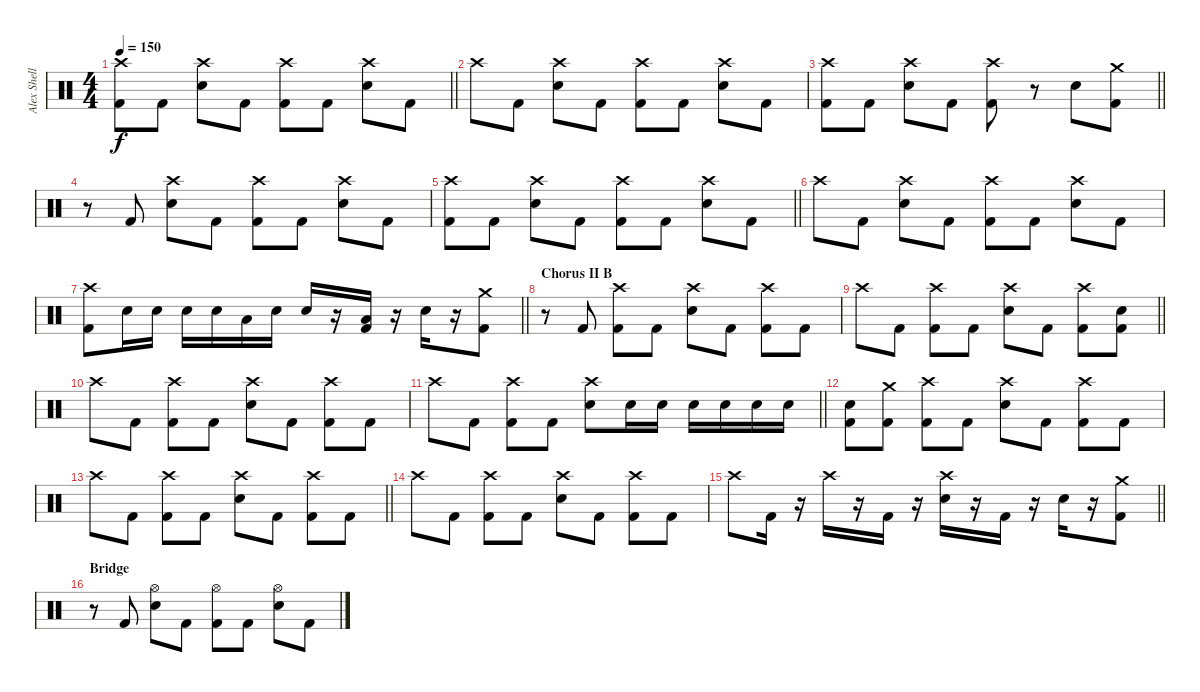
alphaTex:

\track ("Alex Shellnutt" "Alex Shell") {instrument percussion}
\staff {score}
\articulation defaults
\ts (4 4)
\tempo 150
\clef neutral
\barLineRight lightlight
\ks c
("Crash high (hit)" "Kick (hit) 2").8{dy f} "Kick (hit) 2".8 ("Crash high (hit)" "Snare (hit) 2").8 "Kick (hit) 2".8 ("Crash high (hit)" "Kick (hit) 2").8 "Kick (hit) 2".8 ("Crash high (hit)" "Snare (hit) 2").8 "Kick (hit) 2".8 |
"Crash high (hit)".8 "Kick (hit) 2".8 ("Crash high (hit)" "Snare (hit) 2").8 "Kick (hit) 2".8 ("Crash high (hit)" "Kick (hit) 2").8 "Kick (hit) 2".8 ("Crash high (hit)" "Snare (hit) 2").8 "Kick (hit) 2".8 |
\barLineRight lightlight
("Crash high (hit)" "Kick (hit) 2").8 "Kick (hit) 2".8 ("Crash high (hit)" "Snare (hit) 2").8 "Kick (hit) 2".8 ("Crash high (hit)" "Kick (hit) 2").8 r.8 "Snare (hit) 2".8 ("Crash medium (hit)" "Kick (hit) 2").8 |
r.8 "Kick (hit) 2".8 ("Crash high (hit)" "Snare (hit) 2").8 "Kick (hit) 2".8 ("Crash high (hit)" "Kick (hit) 2").8 "Kick (hit) 2".8 ("Crash high (hit)" "Snare (hit) 2").8 "Kick (hit) 2".8 |
\barLineRight lightlight
("Crash high (hit)" "Kick (hit) 2").8 "Kick (hit) 2".8 ("Crash high (hit)" "Snare (hit) 2").8 "Kick (hit) 2".8 ("Crash high (hit)" "Kick (hit) 2").8 "Kick (hit) 2".8 ("Crash high (hit)" "Snare (hit) 2").8 "Kick (hit) 2".8 |
"Crash high (hit)".8 "Kick (hit) 2".8 ("Crash high (hit)" "Snare (hit) 2").8 "Kick (hit) 2".8 ("Crash high (hit)" "Kick (hit) 2").8 "Kick (hit) 2".8 ("Crash high (hit)" "Snare (hit) 2").8 "Kick (hit) 2".8 |
\barLineRight lightlight
("Crash high (hit)" "Kick (hit) 2").8 "Snare (hit) 2".16 "Snare (hit) 2".16 "Snare (hit) 2".16 "Snare (hit) 2".16 "Low Floor Tom (hit)".16 "Snare (hit) 2".16 "Snare (hit) 2".16 r.16 ("Low Floor Tom (hit)" "Kick (hit) 2").16 r.16 "Snare (hit) 2".16 r.16 ("Crash medium (hit)" "Kick (hit) 2").8 |
\section ("" "Chorus II B")
r.8 "Kick (hit) 2".8 ("Crash high (hit)" "Kick (hit) 2").8 "Kick (hit) 2".8 ("Crash high (hit)" "Snare (hit) 2").8 "Kick (hit) 2".8 ("Crash high (hit)" "Kick (hit) 2").8 "Kick (hit) 2".8 |
\barLineRight lightlight "Crash high (hit)".8 "Kick (hit) 2".8
("Crash high (hit)" "Kick (hit) 2").8 "Kick (hit) 2".8 ("Crash high (hit)" "Snare (hit) 2").8 "Kick (hit) 2".8 ("Crash high (hit)" "Kick (hit) 2").8 ("Snare (hit) 2" "Kick (hit) 2").8 |
"Crash high (hit)".8 "Kick (hit) 2".8 ("Crash high (hit)" "Kick (hit) 2").8 "Kick (hit) 2".8 ("Crash high (hit)" "Snare (hit) 2").8 "Kick (hit) 2".8 ("Crash high (hit)" "Kick (hit) 2").8 "Kick (hit) 2".8 |
\barLineRight lightlight "Crash high (hit)".8 "Kick (hit) 2".8
("Crash high (hit)" "Kick (hit) 2").8 "Kick (hit) 2".8 ("Crash high (hit)" "Snare (hit) 2").8 "Snare (hit) 2".16 "Snare (hit) 2".16 "Snare (hit) 2".16 "Snare (hit) 2".16 "Snare (hit) 2".16 "Snare (hit) 2".16 |
("Snare (hit) 2" "Kick (hit) 2").8 ("Crash medium (hit)" "Kick (hit) 2").8 ("Crash high (hit)" "Kick (hit) 2").8 "Kick (hit) 2".8 ("Crash high (hit)" "Snare (hit) 2").8 "Kick (hit) 2".8 ("Crash high (hit)" "Kick (hit) 2").8 "Kick (hit) 2".8 |
\barLineRight lightlight "Crash high (hit)".8 "Kick (hit) 2".8
("Crash high (hit)" "Kick (hit) 2").8 "Kick (hit) 2".8 ("Crash high (hit)" "Snare (hit) 2").8 "Kick (hit) 2".8 ("Crash high (hit)" "Kick (hit) 2").8 "Kick (hit) 2".8 |
"Crash high (hit)".8 "Kick (hit) 2".8 ("Crash high (hit)" "Kick (hit) 2").8 "Kick (hit) 2".8 ("Crash high (hit)" "Snare (hit) 2").8 "Kick (hit) 2".8 ("Crash high (hit)" "Kick (hit) 2").8 "Kick (hit) 2".8 |
\barLineRight lightlight "Crash high (hit)".8 "Kick (hit) 2".16
r.16 "Crash high (hit)".16 r.16 "Kick (hit) 2".16 r.16 ("Crash high (hit)" "Snare (hit) 2").16 r.16 "Kick (hit) 2".16 r.16 "Snare (hit) 2".16 r.16 ("Crash medium (hit)" "Kick (hit) 2").8 |
\section ("" "Bridge")
r.8 "Kick (hit) 2".8 ("Hi-Hat (open)" "Snare (hit) 2").8 "Kick (hit) 2".8 ("Hi-Hat (open)" "Kick (hit) 2").8 "Kick (hit) 2".8 ("Hi-Hat (open)" "Snare (hit) 2").8 "Kick (hit) 2".8
